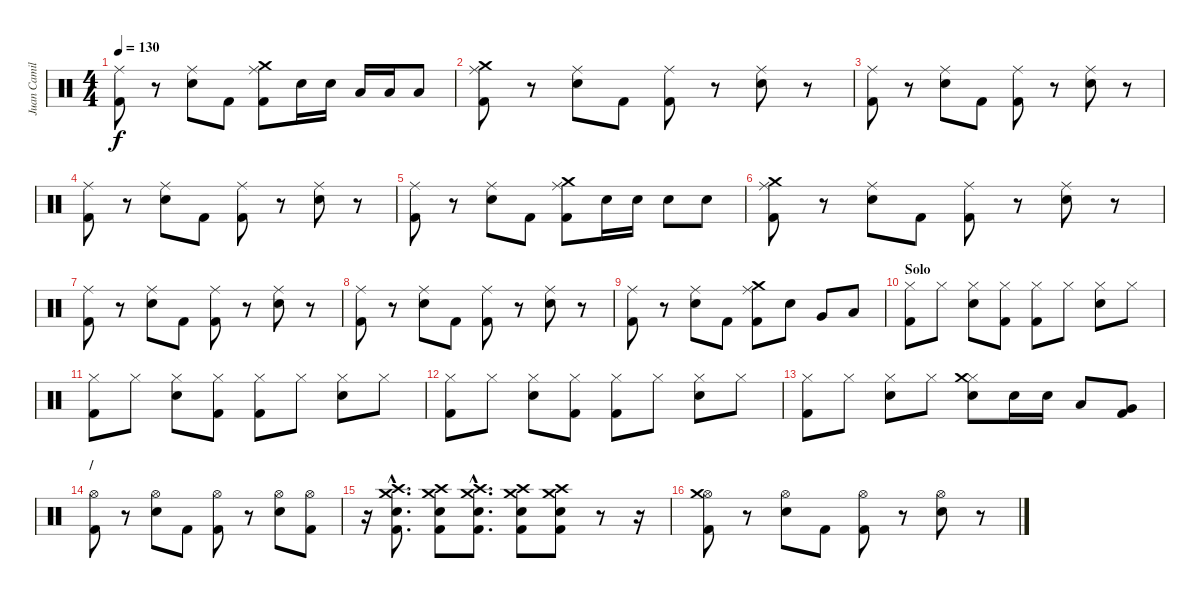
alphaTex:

\track ("Juan Camilo" "Juan Camil") {instrument percussion}
\staff {score}
\articulation defaults
\ts (4 4)
\tempo 130
\clef neutral
\ks c
("Ride (middle)" "Kick (hit) 2").8{dy f} r.8 ("Ride (middle)" "Electric Snare (hit)").8 "Kick (hit) 2".8 ("Crash medium (hit)" "Ride (middle)" "Kick (hit) 2").8 "Electric Snare (hit)".16 "Electric Snare (hit)".16 "Low Tom (hit)".16 "Low Tom (hit)".16 "Low Floor Tom (hit)".8 |
("Crash medium (hit)" "Ride (middle)" "Kick (hit) 2").8 r.8 ("Ride (middle)" "Electric Snare (hit)").8 "Kick (hit) 2".8 ("Ride (middle)" "Kick (hit) 2").8 r.8 ("Ride (middle)" "Electric Snare (hit)").8 r.8 |
("Ride (middle)" "Kick (hit) 2").8 r.8 ("Ride (middle)" "Electric Snare (hit)").8 "Kick (hit) 2".8 ("Ride (middle)" "Kick (hit) 2").8 r.8 ("Ride (middle)" "Electric Snare (hit)").8 r.8 |
("Ride (middle)" "Kick (hit) 2").8 r.8 ("Ride (middle)" "Electric Snare (hit)").8 "Kick (hit) 2".8 ("Ride (middle)" "Kick (hit) 2").8 r.8 ("Ride (middle)" "Electric Snare (hit)").8 r.8 |
("Ride (middle)" "Kick (hit) 2").8 r.8 ("Ride (middle)" "Electric Snare (hit)").8 "Kick (hit) 2".8 ("Crash medium (hit)" "Ride (middle)" "Kick (hit) 2").8 "Electric Snare (hit)".16 "Electric Snare (hit)".16 "Electric Snare (hit)".8 "Electric Snare (hit)".8 |
("Crash medium (hit)" "Ride (middle)" "Kick (hit) 2").8 r.8 ("Ride (middle)" "Electric Snare (hit)").8 "Kick (hit) 2".8 ("Ride (middle)" "Kick (hit) 2").8 r.8 ("Ride (middle)" "Electric Snare (hit)").8 r.8 |
("Ride (middle)" "Kick (hit) 2").8 r.8 ("Ride (middle)" "Electric Snare (hit)").8 "Kick (hit) 2".8 ("Ride (middle)" "Kick (hit) 2").8 r.8 ("Ride (middle)" "Electric Snare (hit)").8 r.8 |
("Ride (middle)" "Kick (hit) 2").8 r.8 ("Ride (middle)" "Electric Snare (hit)").8 "Kick (hit) 2".8 ("Ride (middle)" "Kick (hit) 2").8 r.8 ("Ride (middle)" "Electric Snare (hit)").8 r.8 |
("Ride (middle)" "Kick (hit) 2").8 r.8 ("Ride (middle)" "Electric Snare (hit)").8 "Kick (hit) 2".8 ("Crash medium (hit)" "Ride (middle)" "Kick (hit) 2").8 "Electric Snare (hit)".8 "Very Low Tom (hit)".8 "Low Floor Tom (hit)".8 |
\section ("" "Solo")
("Hi-Hat (closed)" "Kick (hit) 2").8 "Hi-Hat (closed)".8 ("Hi-Hat (closed)" "Electric Snare (hit)").8 ("Hi-Hat (closed)" "Kick (hit) 2").8 ("Hi-Hat (closed)" "Kick (hit) 2").8 "Hi-Hat (closed)".8 ("Hi-Hat (closed)" "Electric Snare (hit)").8 "Hi-Hat (closed)".8 |
("Hi-Hat (closed)" "Kick (hit) 2").8 "Hi-Hat (closed)".8 ("Hi-Hat (closed)" "Electric Snare (hit)").8 ("Hi-Hat (closed)" "Kick (hit) 2").8 ("Hi-Hat (closed)" "Kick (hit) 2").8 "Hi-Hat (closed)".8 ("Hi-Hat (closed)" "Electric Snare (hit)").8 "Hi-Hat (closed)".8 |
("Hi-Hat (closed)" "Kick (hit) 2").8 "Hi-Hat (closed)".8 ("Hi-Hat (closed)" "Electric Snare (hit)").8 ("Hi-Hat (closed)" "Kick (hit) 2").8 ("Hi-Hat (closed)" "Kick (hit) 2").8 "Hi-Hat (closed)".8 ("Hi-Hat (closed)" "Electric Snare (hit)").8 "Hi-Hat (closed)".8 |
("Hi-Hat (closed)" "Kick (hit) 2").8 "Hi-Hat (closed)".8 ("Hi-Hat (closed)" "Electric Snare (hit)").8 "Hi-Hat (closed)".8 ("Hi-Hat (closed)" "Crash medium (hit)" "Electric Snare (hit)").8 "Electric Snare (hit)".16 "Electric Snare (hit)".16 "Low Tom (hit)".8 ("Kick (hit) 2" "Very Low Tom (hit)").8 |
\section ("" "/")
("Hi-Hat (open)" "Kick (hit) 2").8 r.8 ("Hi-Hat (open)" "Electric Snare (hit)").8 "Kick (hit) 2".8 ("Hi-Hat (open)" "Kick (hit) 2").8 r.8 ("Hi-Hat (open)" "Electric Snare (hit)").8 ("Hi-Hat (open)" "Kick (hit) 2").8 |
r.16 ("Electric Snare (hit)"{hac} "Crash medium (hit)"{hac} "Kick (hit) 2"{hac} "Crash high (hit)"{hac}).8{d} ("Electric Snare (hit)" "Crash medium (hit)" "Kick (hit) 2" "Crash high (hit)").8 ("Electric Snare (hit)"{hac} "Crash medium (hit)"{hac} "Kick (hit) 2"{hac} "Crash high (hit)"{hac}).8{d} ("Electric Snare (hit)" "Crash medium (hit)" "Kick (hit) 2" "Crash high (hit)").8 ("Electric Snare (hit)" "Crash medium (hit)" "Kick (hit) 2" "Crash high (hit)").8 r.8 r.16 |
("Hi-Hat (open)" "Kick (hit) 2" "Crash medium (hit)").8 r.8 ("Hi-Hat (open)" "Electric Snare (hit)").8 "Kick (hit) 2".8 ("Hi-Hat (open)" "Kick (hit) 2").8 r.8 ("Hi-Hat (open)" "Electric Snare (hit)").8 r.8
